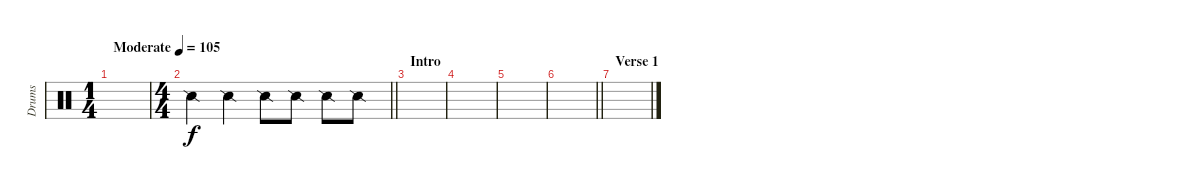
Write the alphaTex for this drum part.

\track ("Drums" "Drums") {instrument percussion}
\staff {score}
\articulation defaults
\ts (1 4)
\tempo (105 "Moderate")
\clef neutral
\ks c
|
\ts (4 4)
\barLineRight lightlight "Snare (side stick) 2".4 "Snare (side stick) 2".4 "Snare (side stick) 2".8 "Snare (side stick) 2".8 "Snare (side stick) 2".8 "Snare (side stick) 2".8
|
\section ("" "Intro")
|
|
|
\barLineRight lightlight
|
\section ("" "Verse 1")
